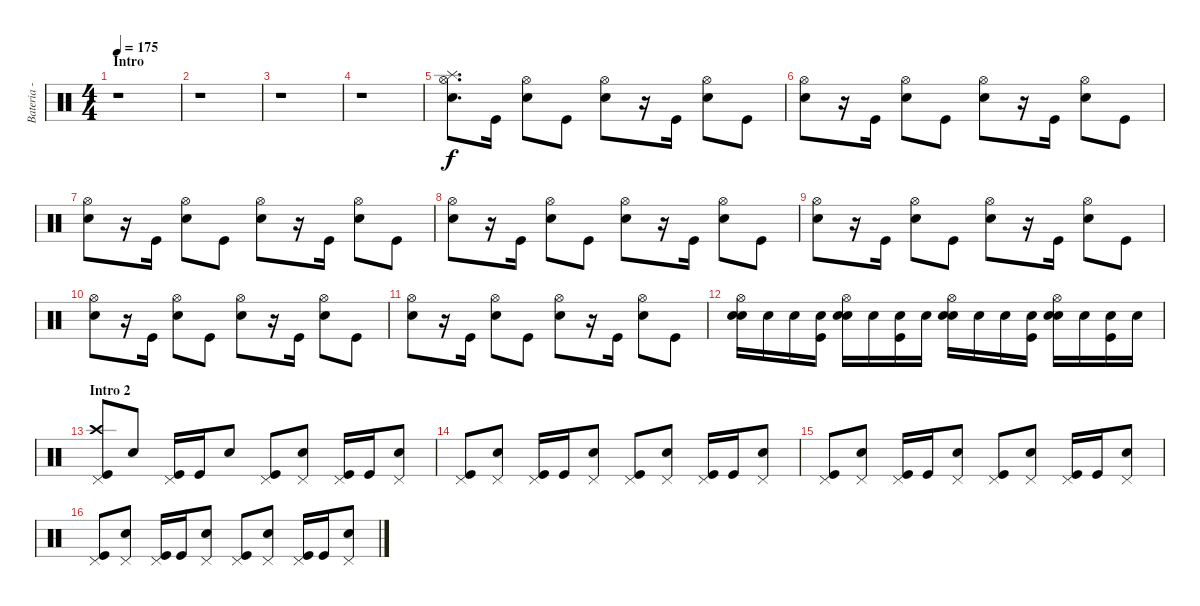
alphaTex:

\track ("Bateria - Larzon" "Bateria - ") {instrument percussion}
\staff {score}
\articulation defaults
\ts (4 4)
\section ("" "Intro")
\tempo 175
\clef neutral
\ks c
r.1{dy f} |
r.1 |
r.1 |
r.1 |
("Splash (hit)" "Hi-Hat (open)" "Snare (hit) 2").8{d} "Kick (hit)".16 ("Snare (hit) 2" "Hi-Hat (open)").8 "Kick (hit)".8 ("Snare (hit) 2" "Hi-Hat (open)").8 r.16 "Kick (hit)".16 ("Snare (hit) 2" "Hi-Hat (open)").8 "Kick (hit)".8 |
("Snare (hit) 2" "Hi-Hat (open)").8 r.16 "Kick (hit)".16 ("Snare (hit) 2" "Hi-Hat (open)").8 "Kick (hit)".8 ("Snare (hit) 2" "Hi-Hat (open)").8 r.16 "Kick (hit)".16 ("Snare (hit) 2" "Hi-Hat (open)").8 "Kick (hit)".8 |
("Snare (hit) 2" "Hi-Hat (open)").8 r.16 "Kick (hit)".16 ("Snare (hit) 2" "Hi-Hat (open)").8 "Kick (hit)".8 ("Snare (hit) 2" "Hi-Hat (open)").8 r.16 "Kick (hit)".16 ("Snare (hit) 2" "Hi-Hat (open)").8 "Kick (hit)".8 |
("Snare (hit) 2" "Hi-Hat (open)").8 r.16 "Kick (hit)".16 ("Snare (hit) 2" "Hi-Hat (open)").8 "Kick (hit)".8 ("Snare (hit) 2" "Hi-Hat (open)").8 r.16 "Kick (hit)".16 ("Snare (hit) 2" "Hi-Hat (open)").8 "Kick (hit)".8 |
("Snare (hit) 2" "Hi-Hat (open)").8 r.16 "Kick (hit)".16 ("Snare (hit) 2" "Hi-Hat (open)").8 "Kick (hit)".8 ("Snare (hit) 2" "Hi-Hat (open)").8 r.16 "Kick (hit)".16 ("Snare (hit) 2" "Hi-Hat (open)").8 "Kick (hit)".8 |
("Snare (hit) 2" "Hi-Hat (open)").8 r.16 "Kick (hit)".16 ("Snare (hit) 2" "Hi-Hat (open)").8 "Kick (hit)".8 ("Snare (hit) 2" "Hi-Hat (open)").8 r.16 "Kick (hit)".16 ("Snare (hit) 2" "Hi-Hat (open)").8 "Kick (hit)".8 |
("Snare (hit) 2" "Hi-Hat (open)").8 r.16 "Kick (hit)".16 ("Snare (hit) 2" "Hi-Hat (open)").8 "Kick (hit)".8 ("Snare (hit) 2" "Hi-Hat (open)").8 r.16 "Kick (hit)".16 ("Snare (hit) 2" "Hi-Hat (open)").8 "Kick (hit)".8 |
("Snare (hit) 2" "Hi-Hat (open)" "Electric Snare (hit)").16 "Electric Snare (hit)".16 "Electric Snare (hit)".16 ("Kick (hit)" "Electric Snare (hit)").16 ("Snare (hit) 2" "Hi-Hat (open)" "Electric Snare (hit)").16 "Electric Snare (hit)".16 ("Kick (hit)" "Electric Snare (hit)").16 "Electric Snare (hit)".16 ("Snare (hit) 2" "Hi-Hat (open)" "Snare (hit) 2").16 "Snare (hit) 2".16 "Snare (hit) 2".16 ("Kick (hit)" "Snare (hit) 2").16 ("Snare (hit) 2" "Hi-Hat (open)" "Snare (hit) 2").16 "Snare (hit) 2".16 ("Kick (hit)" "Snare (hit) 2").16 "Snare (hit) 2".16 |
\section ("" "Intro 2")
("Kick (hit)" "Crash high (hit)" "Pedal Hi-Hat (hit)").8 "Snare (hit) 2".8 ("Kick (hit)" "Pedal Hi-Hat (hit)").16 "Kick (hit)".16 "Snare (hit) 2".8 ("Kick (hit)" "Pedal Hi-Hat (hit)").8 ("Snare (hit) 2" "Pedal Hi-Hat (hit)").8 ("Kick (hit)" "Pedal Hi-Hat (hit)").16 "Kick (hit)".16 ("Snare (hit) 2" "Pedal Hi-Hat (hit)").8 |
("Kick (hit)" "Pedal Hi-Hat (hit)").8 ("Snare (hit) 2" "Pedal Hi-Hat (hit)").8 ("Kick (hit)" "Pedal Hi-Hat (hit)").16 "Kick (hit)".16 ("Snare (hit) 2" "Pedal Hi-Hat (hit)").8 ("Kick (hit)" "Pedal Hi-Hat (hit)").8 ("Snare (hit) 2" "Pedal Hi-Hat (hit)").8 ("Kick (hit)" "Pedal Hi-Hat (hit)").16 "Kick (hit)".16 ("Snare (hit) 2" "Pedal Hi-Hat (hit)").8 |
("Kick (hit)" "Pedal Hi-Hat (hit)").8 ("Snare (hit) 2" "Pedal Hi-Hat (hit)").8 ("Kick (hit)" "Pedal Hi-Hat (hit)").16 "Kick (hit)".16 ("Snare (hit) 2" "Pedal Hi-Hat (hit)").8 ("Kick (hit)" "Pedal Hi-Hat (hit)").8 ("Snare (hit) 2" "Pedal Hi-Hat (hit)").8 ("Kick (hit)" "Pedal Hi-Hat (hit)").16 "Kick (hit)".16 ("Snare (hit) 2" "Pedal Hi-Hat (hit)").8 |
("Kick (hit)" "Pedal Hi-Hat (hit)").8 ("Snare (hit) 2" "Pedal Hi-Hat (hit)").8 ("Kick (hit)" "Pedal Hi-Hat (hit)").16 "Kick (hit)".16 ("Snare (hit) 2" "Pedal Hi-Hat (hit)").8 ("Kick (hit)" "Pedal Hi-Hat (hit)").8 ("Snare (hit) 2" "Pedal Hi-Hat (hit)").8 ("Kick (hit)" "Pedal Hi-Hat (hit)").16 "Kick (hit)".16 ("Snare (hit) 2" "Pedal Hi-Hat (hit)").8
